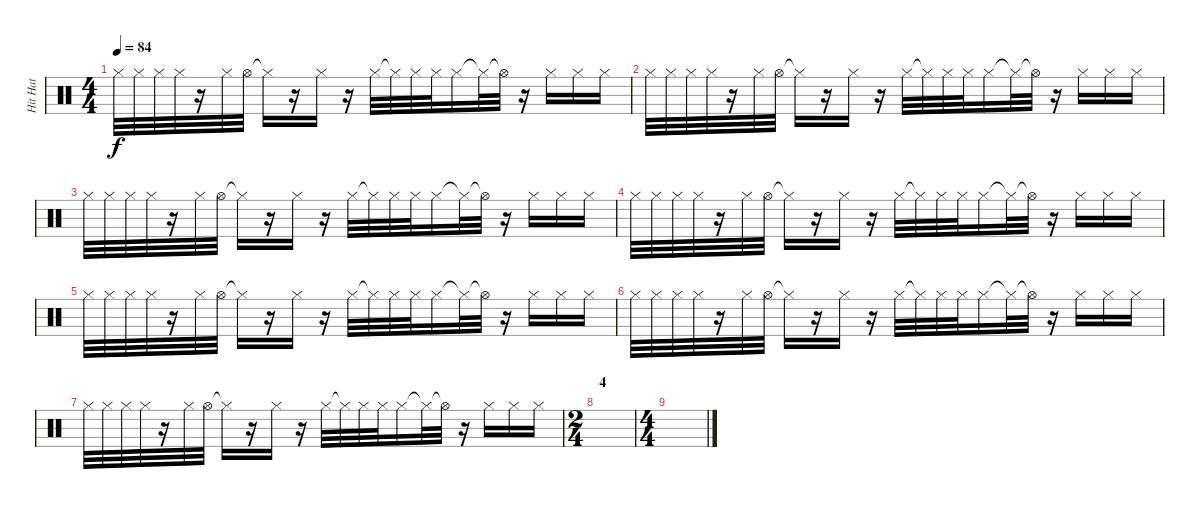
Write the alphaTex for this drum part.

\track ("Hit Hat" "Hit Hat") {instrument percussion}
\staff {score}
\articulation defaults
\ts (4 4)
\tempo 84
\clef neutral
\ks c "Hi-Hat (closed)".32{dy f} "Hi-Hat (closed)".32 "Hi-Hat (closed)".32 "Hi-Hat (closed)".32
r.16 "Hi-Hat (closed)".32 "Hi-Hat (open)".32 "Hi-Hat (closed)"{t}.16 r.16 "Hi-Hat (closed)".16 r.16 "Hi-Hat (closed)".32 "Hi-Hat (closed)"{t}.32 "Hi-Hat (closed)".32 "Hi-Hat (closed)".32 "Hi-Hat (closed)".16 "Hi-Hat (closed)"{t}.32 "Hi-Hat (open)"{t}.32 r.16 "Hi-Hat (closed)".16 "Hi-Hat (closed)".16 "Hi-Hat (closed)".16 |
"Hi-Hat (closed)".32 "Hi-Hat (closed)".32 "Hi-Hat (closed)".32 "Hi-Hat (closed)".32 r.16 "Hi-Hat (closed)".32 "Hi-Hat (open)".32 "Hi-Hat (closed)"{t}.16 r.16 "Hi-Hat (closed)".16 r.16 "Hi-Hat (closed)".32 "Hi-Hat (closed)"{t}.32 "Hi-Hat (closed)".32 "Hi-Hat (closed)".32 "Hi-Hat (closed)".16 "Hi-Hat (closed)"{t}.32 "Hi-Hat (open)"{t}.32 r.16 "Hi-Hat (closed)".16 "Hi-Hat (closed)".16 "Hi-Hat (closed)".16 |
"Hi-Hat (closed)".32 "Hi-Hat (closed)".32 "Hi-Hat (closed)".32 "Hi-Hat (closed)".32 r.16 "Hi-Hat (closed)".32 "Hi-Hat (open)".32 "Hi-Hat (closed)"{t}.16 r.16 "Hi-Hat (closed)".16 r.16 "Hi-Hat (closed)".32 "Hi-Hat (closed)"{t}.32 "Hi-Hat (closed)".32 "Hi-Hat (closed)".32 "Hi-Hat (closed)".16 "Hi-Hat (closed)"{t}.32 "Hi-Hat (open)"{t}.32 r.16 "Hi-Hat (closed)".16 "Hi-Hat (closed)".16 "Hi-Hat (closed)".16 |
"Hi-Hat (closed)".32 "Hi-Hat (closed)".32 "Hi-Hat (closed)".32 "Hi-Hat (closed)".32 r.16 "Hi-Hat (closed)".32 "Hi-Hat (open)".32 "Hi-Hat (closed)"{t}.16 r.16 "Hi-Hat (closed)".16 r.16 "Hi-Hat (closed)".32 "Hi-Hat (closed)"{t}.32 "Hi-Hat (closed)".32 "Hi-Hat (closed)".32 "Hi-Hat (closed)".16 "Hi-Hat (closed)"{t}.32 "Hi-Hat (open)"{t}.32 r.16 "Hi-Hat (closed)".16 "Hi-Hat (closed)".16 "Hi-Hat (closed)".16 |
"Hi-Hat (closed)".32 "Hi-Hat (closed)".32 "Hi-Hat (closed)".32 "Hi-Hat (closed)".32 r.16 "Hi-Hat (closed)".32 "Hi-Hat (open)".32 "Hi-Hat (closed)"{t}.16 r.16 "Hi-Hat (closed)".16 r.16 "Hi-Hat (closed)".32 "Hi-Hat (closed)"{t}.32 "Hi-Hat (closed)".32 "Hi-Hat (closed)".32 "Hi-Hat (closed)".16 "Hi-Hat (closed)"{t}.32 "Hi-Hat (open)"{t}.32 r.16 "Hi-Hat (closed)".16 "Hi-Hat (closed)".16 "Hi-Hat (closed)".16 |
"Hi-Hat (closed)".32 "Hi-Hat (closed)".32 "Hi-Hat (closed)".32 "Hi-Hat (closed)".32 r.16 "Hi-Hat (closed)".32 "Hi-Hat (open)".32 "Hi-Hat (closed)"{t}.16 r.16 "Hi-Hat (closed)".16 r.16 "Hi-Hat (closed)".32 "Hi-Hat (closed)"{t}.32 "Hi-Hat (closed)".32 "Hi-Hat (closed)".32 "Hi-Hat (closed)".16 "Hi-Hat (closed)"{t}.32 "Hi-Hat (open)"{t}.32 r.16 "Hi-Hat (closed)".16 "Hi-Hat (closed)".16 "Hi-Hat (closed)".16 |
"Hi-Hat (closed)".32 "Hi-Hat (closed)".32 "Hi-Hat (closed)".32 "Hi-Hat (closed)".32 r.16 "Hi-Hat (closed)".32 "Hi-Hat (open)".32 "Hi-Hat (closed)"{t}.16 r.16 "Hi-Hat (closed)".16 r.16 "Hi-Hat (closed)".32 "Hi-Hat (closed)"{t}.32 "Hi-Hat (closed)".32 "Hi-Hat (closed)".32 "Hi-Hat (closed)".16 "Hi-Hat (closed)"{t}.32 "Hi-Hat (open)"{t}.32 r.16 "Hi-Hat (closed)".16 "Hi-Hat (closed)".16 "Hi-Hat (closed)".16 |
\ts (2 4)
\section ("" "4")
|
\ts (4 4)
